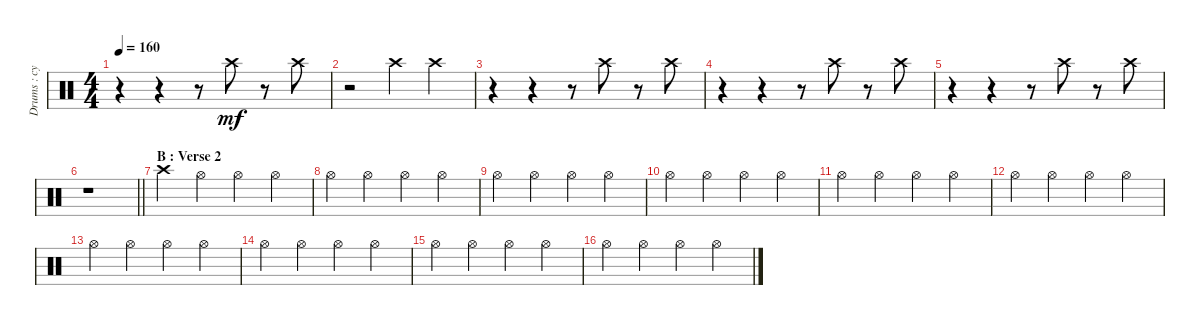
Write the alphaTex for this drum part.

\track ("Drums : cymbals" "Drums : cy") {instrument percussion}
\staff {score}
\articulation defaults
\ts (4 4)
\tempo 160
\clef neutral
\ks c
r.4{dy mf} r.4 r.8 "Crash high (hit)".8 r.8{volume 0} "Crash high (hit)".8{volume 13} |
r.2{volume 0} "Crash high (hit)".4{volume 13} "Crash high (hit)".4 |
r.4 r.4 r.8 "Crash high (hit)".8 r.8{volume 0} "Crash high (hit)".8{volume 13} |
r.4{volume 0} r.4 r.8 "Crash high (hit)".8{volume 13} r.8 "Crash high (hit)".8 |
r.4 r.4 r.8 "Crash high (hit)".8 r.8{volume 0} "Crash high (hit)".8{volume 13} |
\barLineRight lightlight
r.1 |
\section ("" "B : Verse 2")
"Crash high (hit)".4{volume 13} "Hi-Hat (open)".4 "Hi-Hat (open)".4 "Hi-Hat (open)".4 |
"Hi-Hat (open)".4 "Hi-Hat (open)".4 "Hi-Hat (open)".4 "Hi-Hat (open)".4 |
"Hi-Hat (open)".4 "Hi-Hat (open)".4 "Hi-Hat (open)".4 "Hi-Hat (open)".4 |
"Hi-Hat (open)".4 "Hi-Hat (open)".4 "Hi-Hat (open)".4 "Hi-Hat (open)".4 |
"Hi-Hat (open)".4 "Hi-Hat (open)".4 "Hi-Hat (open)".4 "Hi-Hat (open)".4 |
"Hi-Hat (open)".4 "Hi-Hat (open)".4 "Hi-Hat (open)".4 "Hi-Hat (open)".4 |
"Hi-Hat (open)".4 "Hi-Hat (open)".4 "Hi-Hat (open)".4 "Hi-Hat (open)".4 |
"Hi-Hat (open)".4 "Hi-Hat (open)".4 "Hi-Hat (open)".4 "Hi-Hat (open)".4 |
"Hi-Hat (open)".4 "Hi-Hat (open)".4 "Hi-Hat (open)".4 "Hi-Hat (open)".4 |
"Hi-Hat (open)".4 "Hi-Hat (open)".4 "Hi-Hat (open)".4 "Hi-Hat (open)".4
